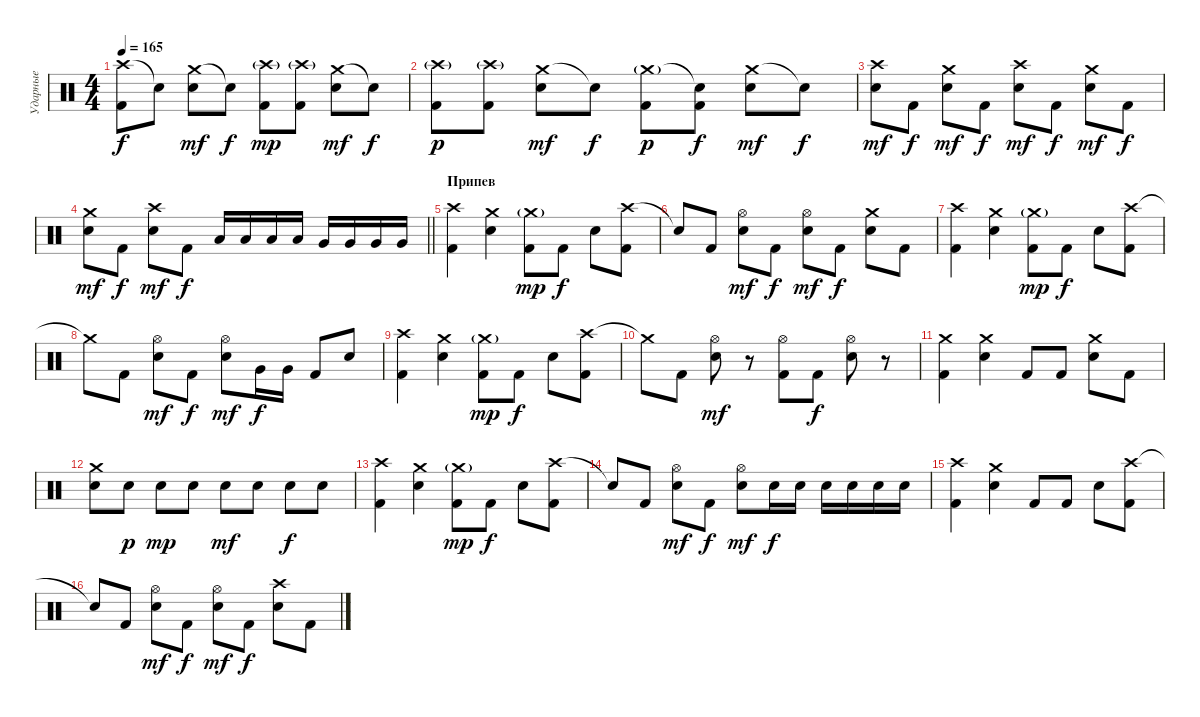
\track ("Ударные" "Ударные") {instrument percussion}
\staff {score}
\articulation defaults
\ts (4 4)
\tempo 165
\clef neutral
\ks c
("Crash high (hit)" "Kick (hit) 2").8{dy f} "Snare (hit)"{t}.8 ("Crash medium (hit)" "Snare (hit) 2").8{dy mf} "Snare (hit)"{t}.8{dy f} ("Crash high (hit)"{g} "Kick (hit) 2").8{dy mp} ("Crash high (hit)"{g} "Kick (hit) 2").8 ("Crash medium (hit)" "Snare (hit) 2").8{dy mf} "Snare (hit)"{t}.8{dy f} |
("Crash high (hit)"{g} "Kick (hit) 2").8{dy p} ("Crash high (hit)"{g} "Kick (hit) 2").8 ("Crash medium (hit)" "Snare (hit) 2").8{dy mf} "Snare (hit)"{t}.8{dy f} ("Crash medium (hit)"{g} "Kick (hit) 2").8{dy p} ("Snare (hit)"{t} "Kick (hit) 2").8{dy f} ("Crash medium (hit)" "Snare (hit) 2").8{dy mf} "Snare (hit)"{t}.8{dy f} |
("Crash high (hit)" "Snare (hit) 2").8{dy mf} "Kick (hit) 2".8{dy f} ("Crash medium (hit)" "Snare (hit) 2").8{dy mf} "Kick (hit) 2".8{dy f} ("Crash high (hit)" "Snare (hit) 2").8{dy mf} "Kick (hit) 2".8{dy f} ("Crash medium (hit)" "Snare (hit) 2").8{dy mf} "Kick (hit) 2".8{dy f} |
\barLineRight lightlight
("Crash medium (hit)" "Snare (hit) 2").8{dy mf} "Kick (hit) 2".8{dy f} ("Crash high (hit)" "Snare (hit) 2").8{dy mf} "Kick (hit) 2".8{dy f} "Low Tom (hit)".16 "Low Tom (hit)".16 "Low Tom (hit)".16 "Low Tom (hit)".16 "Very Low Tom (hit)".16 "Very Low Tom (hit)".16 "Very Low Tom (hit)".16 "Very Low Tom (hit)".16 |
\section ("" "Припев")
("Crash high (hit)" "Kick (hit) 2").4 ("Crash medium (hit)" "Snare (hit) 2").4 ("Crash medium (hit)"{g} "Kick (hit) 2").8{dy mp} "Kick (hit) 2".8{dy f} "Snare (hit) 2".8 ("Crash high (hit)" "Kick (hit) 2").8 |
"Snare (hit)"{t}.8 "Kick (hit) 2".8 ("Hi-Hat (open)" "Snare (hit) 2").8{dy mf} "Kick (hit) 2".8{dy f} ("Hi-Hat (open)" "Snare (hit) 2").8{dy mf} "Kick (hit) 2".8{dy f} ("Crash medium (hit)" "Snare (hit) 2").8 "Kick (hit) 2".8 |
("Crash high (hit)" "Kick (hit) 2").4 ("Crash medium (hit)" "Snare (hit) 2").4 ("Crash medium (hit)"{g} "Kick (hit) 2").8{dy mp} "Kick (hit) 2".8{dy f} "Snare (hit) 2".8 ("Crash high (hit)" "Kick (hit) 2").8 |
"Crash medium (hit)"{t}.8 "Kick (hit) 2".8 ("Hi-Hat (open)" "Snare (hit) 2").8{dy mf} "Kick (hit) 2".8{dy f} ("Hi-Hat (open)" "Snare (hit) 2").8{dy mf} "Very Low Tom (hit)".16{dy f} "Very Low Tom (hit)".16 "Kick (hit) 2".8 "Snare (hit) 2".8 |
("Crash high (hit)" "Kick (hit) 2").4 ("Crash medium (hit)" "Snare (hit) 2").4 ("Crash medium (hit)"{g} "Kick (hit) 2").8{dy mp} "Kick (hit) 2".8{dy f} "Snare (hit) 2".8 ("Crash high (hit)" "Kick (hit) 2").8 |
"Crash medium (hit)"{t}.8 "Kick (hit) 2".8 ("Hi-Hat (open)" "Snare (hit) 2").8{dy mf} r.8 ("Hi-Hat (open)" "Kick (hit) 2").8 "Kick (hit) 2".8{dy f} ("Hi-Hat (open)" "Snare (hit) 2").8 r.8 |
("Crash medium (hit)" "Kick (hit) 2").4 ("Crash medium (hit)" "Snare (hit) 2").4 "Kick (hit) 2".8 "Kick (hit) 2".8 ("Crash medium (hit)" "Snare (hit) 2").8 "Kick (hit) 2".8 |
("Crash medium (hit)" "Snare (hit) 2").8 "Snare (hit) 2".8{dy p} "Snare (hit) 2".8{dy mp} "Snare (hit) 2".8 "Snare (hit) 2".8{dy mf} "Snare (hit) 2".8 "Snare (hit) 2".8{dy f} "Snare (hit) 2".8 |
("Crash high (hit)" "Kick (hit) 2").4 ("Crash medium (hit)" "Snare (hit) 2").4 ("Crash medium (hit)"{g} "Kick (hit) 2").8{dy mp} "Kick (hit) 2".8{dy f} "Snare (hit) 2".8 ("Crash high (hit)" "Kick (hit) 2").8 |
"Snare (hit)"{t}.8 "Kick (hit) 2".8 ("Hi-Hat (open)" "Snare (hit) 2").8{dy mf} "Kick (hit) 2".8{dy f} ("Hi-Hat (open)" "Snare (hit) 2").8{dy mf} "Snare (hit) 2".16{dy f} "Snare (hit) 2".16 "Snare (hit) 2".16 "Snare (hit) 2".16 "Snare (hit) 2".16 "Snare (hit) 2".16 |
("Crash high (hit)" "Kick (hit) 2").4 ("Crash medium (hit)" "Snare (hit) 2").4 "Kick (hit) 2".8 "Kick (hit) 2".8 "Snare (hit) 2".8 ("Crash high (hit)" "Kick (hit) 2").8 |
"Snare (hit)"{t}.8 "Kick (hit) 2".8 ("Hi-Hat (open)" "Snare (hit) 2").8{dy mf} "Kick (hit) 2".8{dy f} ("Hi-Hat (open)" "Snare (hit) 2").8{dy mf} "Kick (hit) 2".8{dy f} ("Crash high (hit)" "Snare (hit) 2").8 "Kick (hit) 2".8
